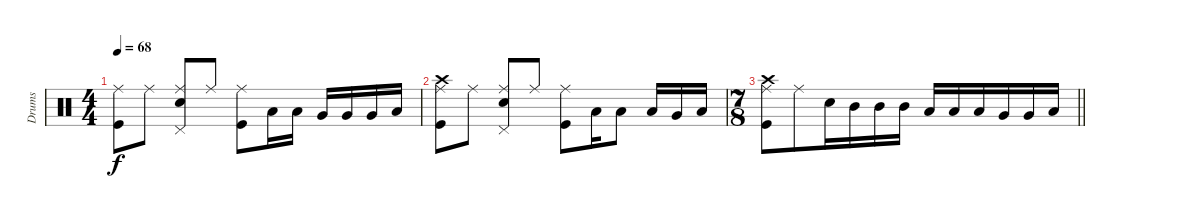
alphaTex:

\track ("Drums" "Drums") {instrument percussion}
\staff {score}
\articulation defaults
\ts (4 4)
\tempo 68
\clef neutral
\ks c
("Ride (middle)" "Kick (hit)").8{dy f} "Ride (middle)".8 ("Ride (middle)" "Snare (hit) 2" "Pedal Hi-Hat (hit)").8 "Ride (middle)".8 ("Ride (middle)" "Kick (hit)").8 "Low Tom (hit)".16 "Low Tom (hit)".16 "Very Low Tom (hit)".16 "Very Low Tom (hit)".16 "Very Low Tom (hit)".16 "Low Floor Tom (hit)".16 |
("Ride (middle)" "Crash high (hit)" "Kick (hit)").8 "Ride (middle)".8 ("Ride (middle)" "Snare (hit) 2" "Pedal Hi-Hat (hit)").8 "Ride (middle)".8 ("Ride (middle)" "Kick (hit)").8 "Low Tom (hit)".16 "Low Tom (hit)".8 "Low Tom (hit)".16 "Very Low Tom (hit)".16 "Low Floor Tom (hit)".16 |
\ts (7 8)
\barLineRight lightlight
("Crash high (hit)" "Ride (middle)" "Kick (hit)").8 "Ride (middle)".8 "Snare (hit) 2".16 "Mid Tom (hit)".16 "Mid Tom (hit)".16 "Mid Tom (hit)".16 "Low Tom (hit)".16 "Low Tom (hit)".16 "Low Tom (hit)".16 "Very Low Tom (hit)".16 "Very Low Tom (hit)".16 "Low Floor Tom (hit)".16
